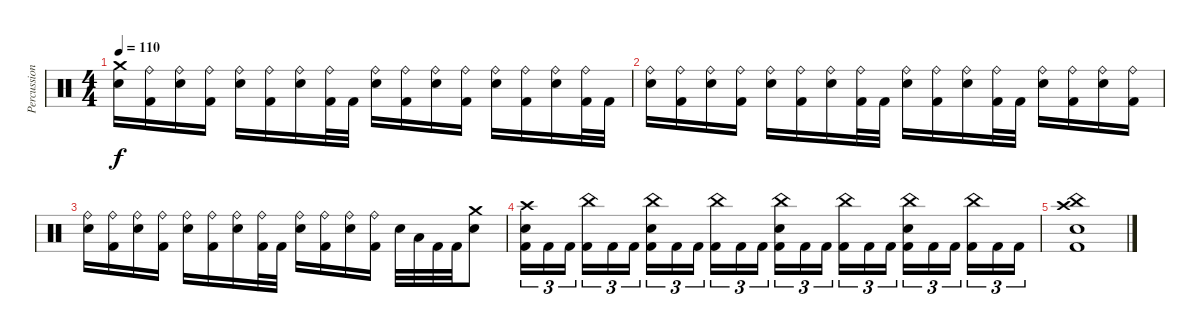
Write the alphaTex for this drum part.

\track ("Percussion" "Percussion") {instrument percussion}
\staff {score}
\articulation defaults
\ts (4 4)
\tempo 110
\clef neutral
\ks c
("Crash medium (hit)" "Electric Snare (hit)").16{dy f} ("Ride (bell)" "Kick (hit) 2").16 ("Ride (bell)" "Electric Snare (hit)").16 ("Ride (bell)" "Kick (hit) 2").16 ("Ride (bell)" "Electric Snare (hit)").16 ("Ride (bell)" "Kick (hit) 2").16 ("Ride (bell)" "Electric Snare (hit)").16 ("Ride (bell)" "Kick (hit) 2").32 "Kick (hit) 2".32 ("Ride (bell)" "Electric Snare (hit)").16 ("Ride (bell)" "Kick (hit) 2").16 ("Ride (bell)" "Electric Snare (hit)").16 ("Ride (bell)" "Kick (hit) 2").16 ("Ride (bell)" "Electric Snare (hit)").16 ("Ride (bell)" "Kick (hit) 2").16 ("Ride (bell)" "Electric Snare (hit)").16 ("Ride (bell)" "Kick (hit) 2").32 "Kick (hit) 2".32 |
("Ride (bell)" "Electric Snare (hit)").16 ("Ride (bell)" "Kick (hit) 2").16 ("Ride (bell)" "Electric Snare (hit)").16 ("Ride (bell)" "Kick (hit) 2").16 ("Ride (bell)" "Electric Snare (hit)").16 ("Ride (bell)" "Kick (hit) 2").16 ("Ride (bell)" "Electric Snare (hit)").16 ("Ride (bell)" "Kick (hit) 2").32 "Kick (hit) 2".32 ("Ride (bell)" "Electric Snare (hit)").16 ("Ride (bell)" "Kick (hit) 2").16 ("Ride (bell)" "Electric Snare (hit)").16 ("Ride (bell)" "Kick (hit) 2").32 "Kick (hit) 2".32 ("Ride (bell)" "Electric Snare (hit)").16 ("Ride (bell)" "Kick (hit) 2").16 ("Ride (bell)" "Electric Snare (hit)").16 ("Ride (bell)" "Kick (hit) 2").16 |
("Ride (bell)" "Electric Snare (hit)").16 ("Ride (bell)" "Kick (hit) 2").16 ("Ride (bell)" "Electric Snare (hit)").16 ("Ride (bell)" "Kick (hit) 2").16 ("Ride (bell)" "Electric Snare (hit)").16 ("Ride (bell)" "Kick (hit) 2").16 ("Ride (bell)" "Electric Snare (hit)").16 ("Ride (bell)" "Kick (hit) 2").32 "Kick (hit) 2".32 ("Ride (bell)" "Electric Snare (hit)").16 ("Ride (bell)" "Kick (hit) 2").16 ("Ride (bell)" "Electric Snare (hit)").16 ("Ride (bell)" "Kick (hit) 2").16 "Electric Snare (hit)".32 "Low Floor Tom (hit)".32 "Kick (hit) 2".32 "Kick (hit) 2".32 ("Crash medium (hit)" "Electric Snare (hit)").8 |
("Crash high (hit)" "Electric Snare (hit)" "Kick (hit) 2").16{tu (3 2)} "Kick (hit) 2".16{tu (3 2)} "Kick (hit) 2".16{tu (3 2) beam splitsecondary} ("China (hit)" "Kick (hit) 2").16{tu (3 2)} "Kick (hit) 2".16{tu (3 2)} "Kick (hit) 2".16{tu (3 2)} ("China (hit)" "Electric Snare (hit)" "Kick (hit) 2").16{tu (3 2)} "Kick (hit) 2".16{tu (3 2)} "Kick (hit) 2".16{tu (3 2) beam splitsecondary} ("China (hit)" "Kick (hit) 2").16{tu (3 2)} "Kick (hit) 2".16{tu (3 2)} "Kick (hit) 2".16{tu (3 2)} ("China (hit)" "Electric Snare (hit)" "Kick (hit) 2").16{tu (3 2)} "Kick (hit) 2".16{tu (3 2)} "Kick (hit) 2".16{tu (3 2) beam splitsecondary} ("China (hit)" "Kick (hit) 2").16{tu (3 2)} "Kick (hit) 2".16{tu (3 2)} "Kick (hit) 2".16{tu (3 2)} ("China (hit)" "Electric Snare (hit)" "Kick (hit) 2").16{tu (3 2)} "Kick (hit) 2".16{tu (3 2)} "Kick (hit) 2".16{tu (3 2) beam splitsecondary} ("China (hit)" "Kick (hit) 2").16{tu (3 2)} "Kick (hit) 2".16{tu (3 2)} "Kick (hit) 2".16{tu (3 2)} |
("China (hit)" "Crash high (hit)" "Electric Snare (hit)" "Kick (hit) 2").1
